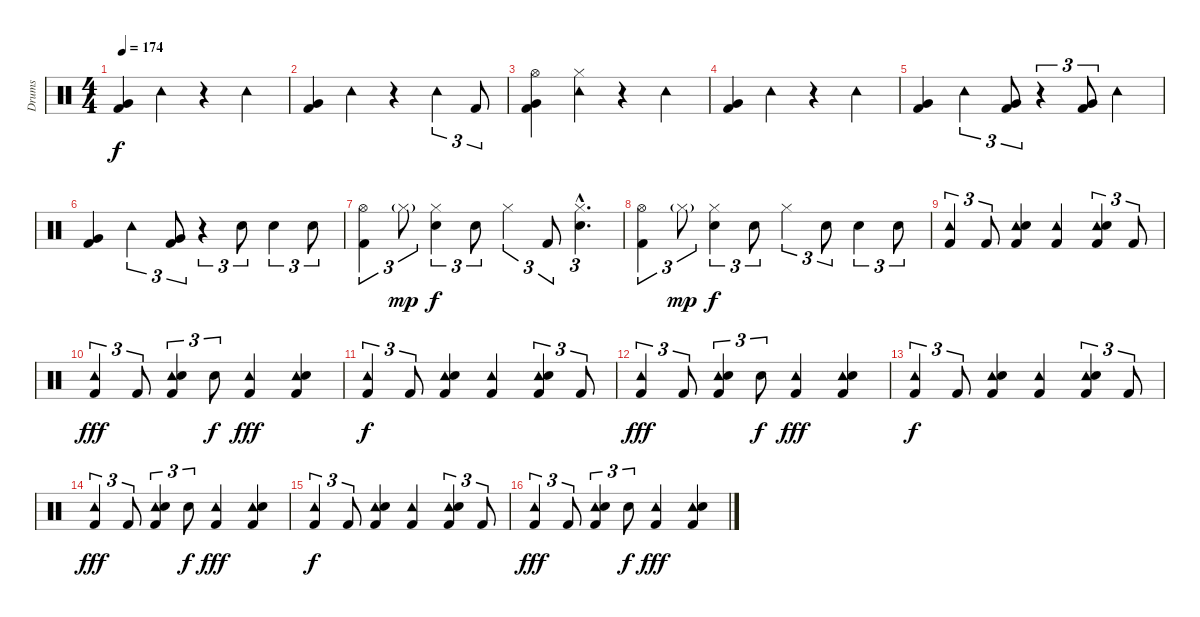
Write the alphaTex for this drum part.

\track ("Drums" "Drums") {instrument percussion}
\staff {score}
\articulation defaults
\ts (4 4)
\tempo 174
\clef neutral
\ks c
("Very Low Tom (hit)" "Kick (hit) 2").4{dy f} "Tambourine (hit)".4 r.4 "Tambourine (hit)".4 |
("Very Low Tom (hit)" "Kick (hit) 2").4 "Tambourine (hit)".4 r.4 "Tambourine (hit)".4{tu (3 2)} "Kick (hit) 2".8{tu (3 2)} |
("Hi-Hat (open)" "Very Low Tom (hit)" "Kick (hit) 2").4 ("Tambourine (hit)" "Hi-Hat (closed)").4 r.4 "Tambourine (hit)".4 |
("Very Low Tom (hit)" "Kick (hit) 2").4 "Tambourine (hit)".4 r.4 "Tambourine (hit)".4 |
("Very Low Tom (hit)" "Kick (hit) 2").4 "Tambourine (hit)".4{tu (3 2)} ("Very Low Tom (hit)" "Kick (hit) 2").8{tu (3 2)} r.4{tu (3 2)} ("Very Low Tom (hit)" "Kick (hit) 2").8{tu (3 2)} "Tambourine (hit)".4 |
("Very Low Tom (hit)" "Kick (hit) 2").4 "Tambourine (hit)".4{tu (3 2)} ("Very Low Tom (hit)" "Kick (hit) 2").8{tu (3 2)} r.4{tu (3 2)} "Electric Snare (hit)".8{tu (3 2)} "Electric Snare (hit)".4{tu (3 2)} "Electric Snare (hit)".8{tu (3 2)} |
("Hi-Hat (open)" "Kick (hit) 2").4{tu (3 2)} "Hi-Hat (closed)"{g}.8{tu (3 2) dy mp} ("Hi-Hat (closed)" "Electric Snare (hit)").4{tu (3 2) dy f} "Electric Snare (hit)".8{tu (3 2)} "Hi-Hat (closed)".4{tu (3 2)} "Kick (hit) 2".8{tu (3 2)} ("Hi-Hat (closed)"{hac} "Electric Snare (hit)"{hac}).4{d tu (3 2)} |
("Hi-Hat (open)" "Kick (hit) 2").4{tu (3 2)} "Hi-Hat (closed)"{g}.8{tu (3 2) dy mp} ("Hi-Hat (closed)" "Electric Snare (hit)").4{tu (3 2) dy f} "Electric Snare (hit)".8{tu (3 2)} "Hi-Hat (closed)".4{tu (3 2)} "Electric Snare (hit)".8{tu (3 2)} "Electric Snare (hit)".4{tu (3 2)} "Electric Snare (hit)".8{tu (3 2)} |
("Tambourine (hit)" "Kick (hit) 2").4{tu (3 2)} "Kick (hit) 2".8{tu (3 2)} ("Tambourine (hit)" "Electric Snare (hit)" "Kick (hit) 2").4 ("Tambourine (hit)" "Kick (hit) 2").4 ("Tambourine (hit)" "Electric Snare (hit)" "Kick (hit) 2").4{tu (3 2)} "Kick (hit) 2".8{tu (3 2)} |
("Tambourine (hit)" "Kick (hit) 2").4{tu (3 2) dy fff} "Kick (hit) 2".8{tu (3 2)} ("Tambourine (hit)" "Electric Snare (hit)" "Kick (hit) 2").4{tu (3 2)} "Electric Snare (hit)".8{tu (3 2) dy f} ("Tambourine (hit)" "Kick (hit) 2").4{dy fff} ("Tambourine (hit)" "Electric Snare (hit)" "Kick (hit) 2").4 |
("Tambourine (hit)" "Kick (hit) 2").4{tu (3 2) dy f} "Kick (hit) 2".8{tu (3 2)} ("Tambourine (hit)" "Electric Snare (hit)" "Kick (hit) 2").4 ("Tambourine (hit)" "Kick (hit) 2").4 ("Tambourine (hit)" "Electric Snare (hit)" "Kick (hit) 2").4{tu (3 2)} "Kick (hit) 2".8{tu (3 2)} |
("Tambourine (hit)" "Kick (hit) 2").4{tu (3 2) dy fff} "Kick (hit) 2".8{tu (3 2)} ("Tambourine (hit)" "Electric Snare (hit)" "Kick (hit) 2").4{tu (3 2)} "Electric Snare (hit)".8{tu (3 2) dy f} ("Tambourine (hit)" "Kick (hit) 2").4{dy fff} ("Tambourine (hit)" "Electric Snare (hit)" "Kick (hit) 2").4 |
("Tambourine (hit)" "Kick (hit) 2").4{tu (3 2) dy f} "Kick (hit) 2".8{tu (3 2)} ("Tambourine (hit)" "Electric Snare (hit)" "Kick (hit) 2").4 ("Tambourine (hit)" "Kick (hit) 2").4 ("Tambourine (hit)" "Electric Snare (hit)" "Kick (hit) 2").4{tu (3 2)} "Kick (hit) 2".8{tu (3 2)} |
("Tambourine (hit)" "Kick (hit) 2").4{tu (3 2) dy fff} "Kick (hit) 2".8{tu (3 2)} ("Tambourine (hit)" "Electric Snare (hit)" "Kick (hit) 2").4{tu (3 2)} "Electric Snare (hit)".8{tu (3 2) dy f} ("Tambourine (hit)" "Kick (hit) 2").4{dy fff} ("Tambourine (hit)" "Electric Snare (hit)" "Kick (hit) 2").4 |
("Tambourine (hit)" "Kick (hit) 2").4{tu (3 2) dy f} "Kick (hit) 2".8{tu (3 2)} ("Tambourine (hit)" "Electric Snare (hit)" "Kick (hit) 2").4 ("Tambourine (hit)" "Kick (hit) 2").4 ("Tambourine (hit)" "Electric Snare (hit)" "Kick (hit) 2").4{tu (3 2)} "Kick (hit) 2".8{tu (3 2)} |
("Tambourine (hit)" "Kick (hit) 2").4{tu (3 2) dy fff} "Kick (hit) 2".8{tu (3 2)} ("Tambourine (hit)" "Electric Snare (hit)" "Kick (hit) 2").4{tu (3 2)} "Electric Snare (hit)".8{tu (3 2) dy f} ("Tambourine (hit)" "Kick (hit) 2").4{dy fff} ("Tambourine (hit)" "Electric Snare (hit)" "Kick (hit) 2").4
